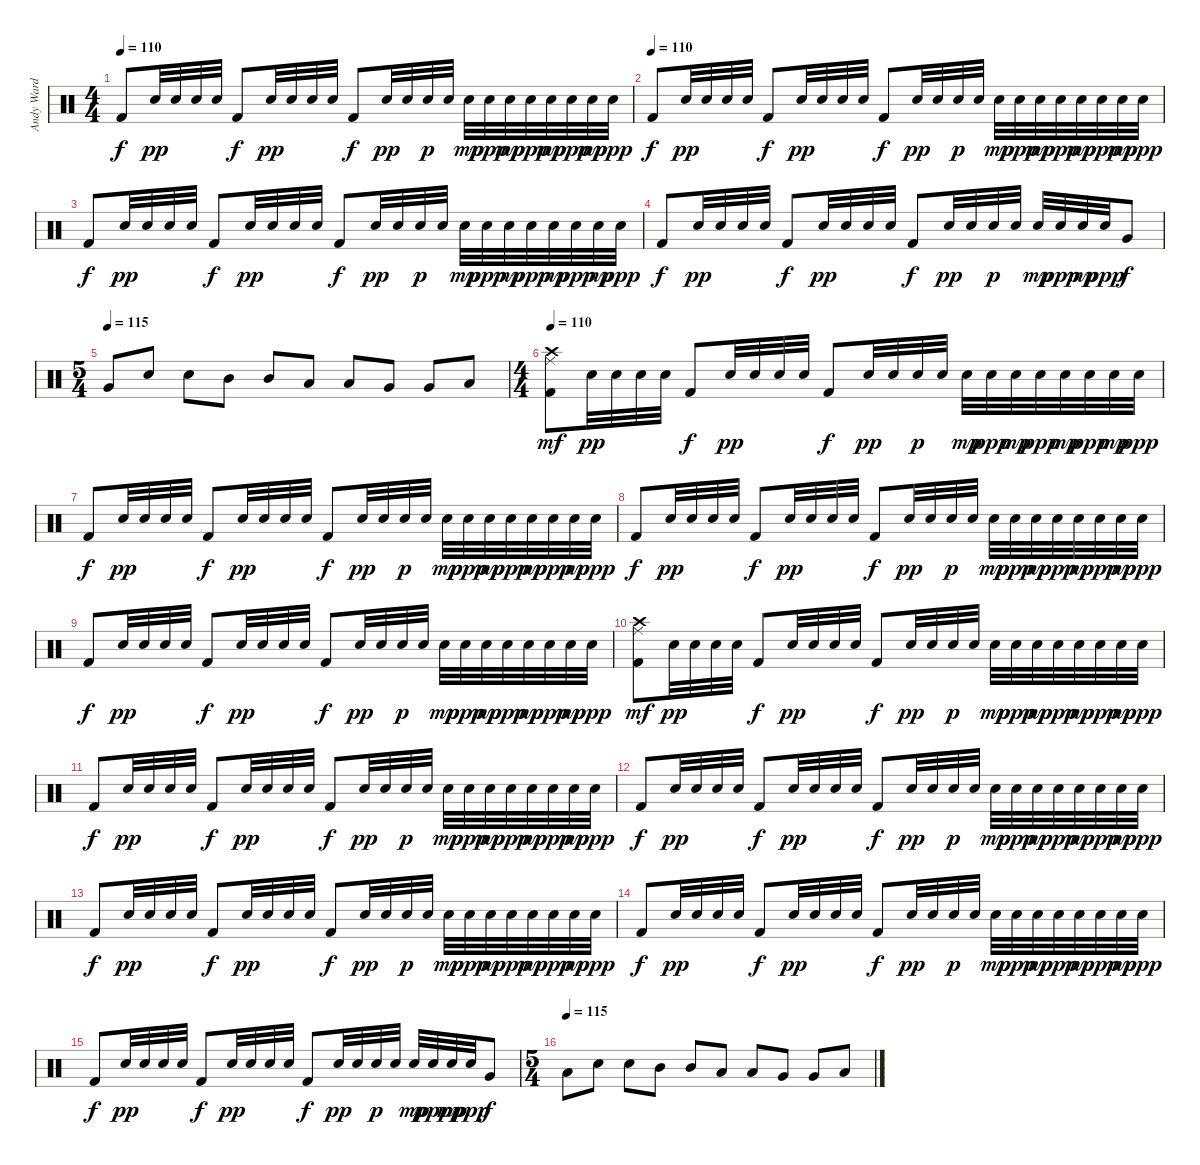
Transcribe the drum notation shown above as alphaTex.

\track ("Andy Ward - Drums" "Andy Ward ") {instrument percussion}
\staff {score}
\articulation defaults
\ts (4 4)
\tempo 110
\clef neutral
\ks c "Kick (hit) 2".8{dy f} "Electric Snare (hit)".32{dy pp} "Electric Snare (hit)".32 "Electric Snare (hit)".32 "Electric Snare (hit)".32 "Kick (hit) 2".8{dy f} "Electric Snare (hit)".32{dy pp} "Electric Snare (hit)".32 "Electric Snare (hit)".32 "Electric Snare (hit)".32 "Kick (hit) 2".8{dy f} "Electric Snare (hit)".32{dy pp} "Electric Snare (hit)".32 "Electric Snare (hit)".32{dy p} "Electric Snare (hit)".32 "Electric Snare (hit)".32{dy mp} "Electric Snare (hit)".32{dy ppp} "Electric Snare (hit)".32{dy mp} "Electric Snare (hit)".32{dy ppp} "Electric Snare (hit)".32{dy mp} "Electric Snare (hit)".32{dy ppp} "Electric Snare (hit)".32{dy mp} "Electric Snare (hit)".32{dy ppp}
|
\tempo (110)
"Kick (hit) 2".8{dy f} "Electric Snare (hit)".32{dy pp} "Electric Snare (hit)".32 "Electric Snare (hit)".32 "Electric Snare (hit)".32 "Kick (hit) 2".8{dy f} "Electric Snare (hit)".32{dy pp} "Electric Snare (hit)".32 "Electric Snare (hit)".32 "Electric Snare (hit)".32 "Kick (hit) 2".8{dy f} "Electric Snare (hit)".32{dy pp} "Electric Snare (hit)".32 "Electric Snare (hit)".32{dy p} "Electric Snare (hit)".32 "Electric Snare (hit)".32{dy mp} "Electric Snare (hit)".32{dy ppp} "Electric Snare (hit)".32{dy mp} "Electric Snare (hit)".32{dy ppp} "Electric Snare (hit)".32{dy mp} "Electric Snare (hit)".32{dy ppp} "Electric Snare (hit)".32{dy mp} "Electric Snare (hit)".32{dy ppp} |
"Kick (hit) 2".8{dy f} "Electric Snare (hit)".32{dy pp} "Electric Snare (hit)".32 "Electric Snare (hit)".32 "Electric Snare (hit)".32 "Kick (hit) 2".8{dy f} "Electric Snare (hit)".32{dy pp} "Electric Snare (hit)".32 "Electric Snare (hit)".32 "Electric Snare (hit)".32 "Kick (hit) 2".8{dy f} "Electric Snare (hit)".32{dy pp} "Electric Snare (hit)".32 "Electric Snare (hit)".32{dy p} "Electric Snare (hit)".32 "Electric Snare (hit)".32{dy mp} "Electric Snare (hit)".32{dy ppp} "Electric Snare (hit)".32{dy mp} "Electric Snare (hit)".32{dy ppp} "Electric Snare (hit)".32{dy mp} "Electric Snare (hit)".32{dy ppp} "Electric Snare (hit)".32{dy mp} "Electric Snare (hit)".32{dy ppp} |
"Kick (hit) 2".8{dy f} "Electric Snare (hit)".32{dy pp} "Electric Snare (hit)".32 "Electric Snare (hit)".32 "Electric Snare (hit)".32 "Kick (hit) 2".8{dy f} "Electric Snare (hit)".32{dy pp} "Electric Snare (hit)".32 "Electric Snare (hit)".32 "Electric Snare (hit)".32 "Kick (hit) 2".8{dy f} "Electric Snare (hit)".32{dy pp} "Electric Snare (hit)".32 "Electric Snare (hit)".32{dy p} "Electric Snare (hit)".32 "Electric Snare (hit)".32{dy mp} "Electric Snare (hit)".32{dy ppp} "Electric Snare (hit)".32{dy mp} "Electric Snare (hit)".32{dy ppp} "Very Low Tom (hit)".8{dy f} |
\ts (5 4)
\tempo (115)
"Very Low Tom (hit)".8 "Electric Snare (hit)".8 "Electric Snare (hit)".8 "Mid Tom (hit)".8 "Mid Tom (hit)".8 "Low Tom (hit)".8 "Low Tom (hit)".8 "Very Low Tom (hit)".8 "Very Low Tom (hit)".8 "Low Floor Tom (hit)".8 |
\ts (4 4)
\tempo 110
("Ride (middle)" "Crash high (hit)" "Kick (hit) 2").8{dy mf} "Electric Snare (hit)".32{dy pp} "Electric Snare (hit)".32 "Electric Snare (hit)".32 "Electric Snare (hit)".32 "Kick (hit) 2".8{dy f} "Electric Snare (hit)".32{dy pp} "Electric Snare (hit)".32 "Electric Snare (hit)".32 "Electric Snare (hit)".32 "Kick (hit) 2".8{dy f} "Electric Snare (hit)".32{dy pp} "Electric Snare (hit)".32 "Electric Snare (hit)".32{dy p} "Electric Snare (hit)".32 "Electric Snare (hit)".32{dy mp} "Electric Snare (hit)".32{dy ppp} "Electric Snare (hit)".32{dy mp} "Electric Snare (hit)".32{dy ppp} "Electric Snare (hit)".32{dy mp} "Electric Snare (hit)".32{dy ppp} "Electric Snare (hit)".32{dy mp} "Electric Snare (hit)".32{dy ppp} |
"Kick (hit) 2".8{dy f} "Electric Snare (hit)".32{dy pp} "Electric Snare (hit)".32 "Electric Snare (hit)".32 "Electric Snare (hit)".32 "Kick (hit) 2".8{dy f} "Electric Snare (hit)".32{dy pp} "Electric Snare (hit)".32 "Electric Snare (hit)".32 "Electric Snare (hit)".32 "Kick (hit) 2".8{dy f} "Electric Snare (hit)".32{dy pp} "Electric Snare (hit)".32 "Electric Snare (hit)".32{dy p} "Electric Snare (hit)".32 "Electric Snare (hit)".32{dy mp} "Electric Snare (hit)".32{dy ppp} "Electric Snare (hit)".32{dy mp} "Electric Snare (hit)".32{dy ppp} "Electric Snare (hit)".32{dy mp} "Electric Snare (hit)".32{dy ppp} "Electric Snare (hit)".32{dy mp} "Electric Snare (hit)".32{dy ppp} |
"Kick (hit) 2".8{dy f} "Electric Snare (hit)".32{dy pp} "Electric Snare (hit)".32 "Electric Snare (hit)".32 "Electric Snare (hit)".32 "Kick (hit) 2".8{dy f} "Electric Snare (hit)".32{dy pp} "Electric Snare (hit)".32 "Electric Snare (hit)".32 "Electric Snare (hit)".32 "Kick (hit) 2".8{dy f} "Electric Snare (hit)".32{dy pp} "Electric Snare (hit)".32 "Electric Snare (hit)".32{dy p} "Electric Snare (hit)".32 "Electric Snare (hit)".32{dy mp} "Electric Snare (hit)".32{dy ppp} "Electric Snare (hit)".32{dy mp} "Electric Snare (hit)".32{dy ppp} "Electric Snare (hit)".32{dy mp} "Electric Snare (hit)".32{dy ppp} "Electric Snare (hit)".32{dy mp} "Electric Snare (hit)".32{dy ppp} |
"Kick (hit) 2".8{dy f} "Electric Snare (hit)".32{dy pp} "Electric Snare (hit)".32 "Electric Snare (hit)".32 "Electric Snare (hit)".32 "Kick (hit) 2".8{dy f} "Electric Snare (hit)".32{dy pp} "Electric Snare (hit)".32 "Electric Snare (hit)".32 "Electric Snare (hit)".32 "Kick (hit) 2".8{dy f} "Electric Snare (hit)".32{dy pp} "Electric Snare (hit)".32 "Electric Snare (hit)".32{dy p} "Electric Snare (hit)".32 "Electric Snare (hit)".32{dy mp} "Electric Snare (hit)".32{dy ppp} "Electric Snare (hit)".32{dy mp} "Electric Snare (hit)".32{dy ppp} "Electric Snare (hit)".32{dy mp} "Electric Snare (hit)".32{dy ppp} "Electric Snare (hit)".32{dy mp} "Electric Snare (hit)".32{dy ppp} |
("Ride (middle)" "Crash high (hit)" "Kick (hit) 2").8{dy mf} "Electric Snare (hit)".32{dy pp} "Electric Snare (hit)".32 "Electric Snare (hit)".32 "Electric Snare (hit)".32 "Kick (hit) 2".8{dy f} "Electric Snare (hit)".32{dy pp} "Electric Snare (hit)".32 "Electric Snare (hit)".32 "Electric Snare (hit)".32 "Kick (hit) 2".8{dy f} "Electric Snare (hit)".32{dy pp} "Electric Snare (hit)".32 "Electric Snare (hit)".32{dy p} "Electric Snare (hit)".32 "Electric Snare (hit)".32{dy mp} "Electric Snare (hit)".32{dy ppp} "Electric Snare (hit)".32{dy mp} "Electric Snare (hit)".32{dy ppp} "Electric Snare (hit)".32{dy mp} "Electric Snare (hit)".32{dy ppp} "Electric Snare (hit)".32{dy mp} "Electric Snare (hit)".32{dy ppp} |
"Kick (hit) 2".8{dy f} "Electric Snare (hit)".32{dy pp} "Electric Snare (hit)".32 "Electric Snare (hit)".32 "Electric Snare (hit)".32 "Kick (hit) 2".8{dy f} "Electric Snare (hit)".32{dy pp} "Electric Snare (hit)".32 "Electric Snare (hit)".32 "Electric Snare (hit)".32 "Kick (hit) 2".8{dy f} "Electric Snare (hit)".32{dy pp} "Electric Snare (hit)".32 "Electric Snare (hit)".32{dy p} "Electric Snare (hit)".32 "Electric Snare (hit)".32{dy mp} "Electric Snare (hit)".32{dy ppp} "Electric Snare (hit)".32{dy mp} "Electric Snare (hit)".32{dy ppp} "Electric Snare (hit)".32{dy mp} "Electric Snare (hit)".32{dy ppp} "Electric Snare (hit)".32{dy mp} "Electric Snare (hit)".32{dy ppp} |
"Kick (hit) 2".8{dy f} "Electric Snare (hit)".32{dy pp} "Electric Snare (hit)".32 "Electric Snare (hit)".32 "Electric Snare (hit)".32 "Kick (hit) 2".8{dy f} "Electric Snare (hit)".32{dy pp} "Electric Snare (hit)".32 "Electric Snare (hit)".32 "Electric Snare (hit)".32 "Kick (hit) 2".8{dy f} "Electric Snare (hit)".32{dy pp} "Electric Snare (hit)".32 "Electric Snare (hit)".32{dy p} "Electric Snare (hit)".32 "Electric Snare (hit)".32{dy mp} "Electric Snare (hit)".32{dy ppp} "Electric Snare (hit)".32{dy mp} "Electric Snare (hit)".32{dy ppp} "Electric Snare (hit)".32{dy mp} "Electric Snare (hit)".32{dy ppp} "Electric Snare (hit)".32{dy mp} "Electric Snare (hit)".32{dy ppp} |
"Kick (hit) 2".8{dy f} "Electric Snare (hit)".32{dy pp} "Electric Snare (hit)".32 "Electric Snare (hit)".32 "Electric Snare (hit)".32 "Kick (hit) 2".8{dy f} "Electric Snare (hit)".32{dy pp} "Electric Snare (hit)".32 "Electric Snare (hit)".32 "Electric Snare (hit)".32 "Kick (hit) 2".8{dy f} "Electric Snare (hit)".32{dy pp} "Electric Snare (hit)".32 "Electric Snare (hit)".32{dy p} "Electric Snare (hit)".32 "Electric Snare (hit)".32{dy mp} "Electric Snare (hit)".32{dy ppp} "Electric Snare (hit)".32{dy mp} "Electric Snare (hit)".32{dy ppp} "Electric Snare (hit)".32{dy mp} "Electric Snare (hit)".32{dy ppp} "Electric Snare (hit)".32{dy mp} "Electric Snare (hit)".32{dy ppp} |
"Kick (hit) 2".8{dy f} "Electric Snare (hit)".32{dy pp} "Electric Snare (hit)".32 "Electric Snare (hit)".32 "Electric Snare (hit)".32 "Kick (hit) 2".8{dy f} "Electric Snare (hit)".32{dy pp} "Electric Snare (hit)".32 "Electric Snare (hit)".32 "Electric Snare (hit)".32 "Kick (hit) 2".8{dy f} "Electric Snare (hit)".32{dy pp} "Electric Snare (hit)".32 "Electric Snare (hit)".32{dy p} "Electric Snare (hit)".32 "Electric Snare (hit)".32{dy mp} "Electric Snare (hit)".32{dy ppp} "Electric Snare (hit)".32{dy mp} "Electric Snare (hit)".32{dy ppp} "Electric Snare (hit)".32{dy mp} "Electric Snare (hit)".32{dy ppp} "Electric Snare (hit)".32{dy mp} "Electric Snare (hit)".32{dy ppp} |
"Kick (hit) 2".8{dy f} "Electric Snare (hit)".32{dy pp} "Electric Snare (hit)".32 "Electric Snare (hit)".32 "Electric Snare (hit)".32 "Kick (hit) 2".8{dy f} "Electric Snare (hit)".32{dy pp} "Electric Snare (hit)".32 "Electric Snare (hit)".32 "Electric Snare (hit)".32 "Kick (hit) 2".8{dy f} "Electric Snare (hit)".32{dy pp} "Electric Snare (hit)".32 "Electric Snare (hit)".32{dy p} "Electric Snare (hit)".32 "Electric Snare (hit)".32{dy mp} "Electric Snare (hit)".32{dy ppp} "Electric Snare (hit)".32{dy mp} "Electric Snare (hit)".32{dy ppp} "Very Low Tom (hit)".8{dy f} |
\ts (5 4)
\tempo (115)
"Low Tom (hit)".8 "Electric Snare (hit)".8 "Electric Snare (hit)".8 "Mid Tom (hit)".8 "Mid Tom (hit)".8 "Low Tom (hit)".8 "Low Tom (hit)".8 "Very Low Tom (hit)".8 "Very Low Tom (hit)".8 "Low Floor Tom (hit)".8
